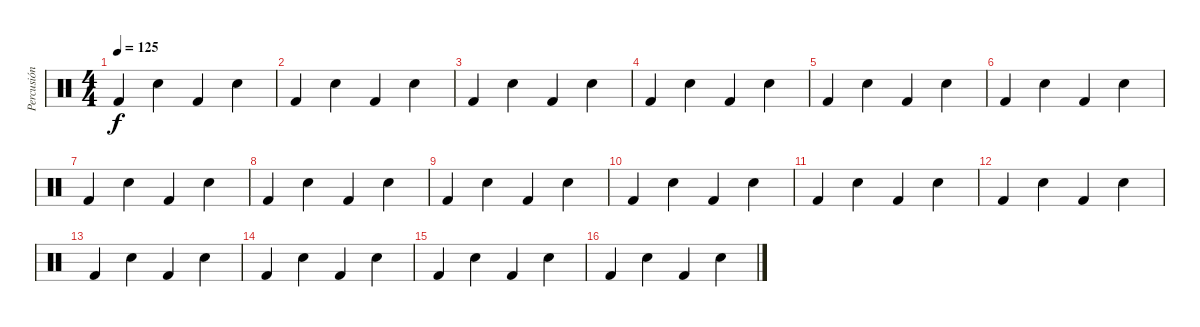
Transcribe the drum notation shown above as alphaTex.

\track ("Percusión" "Percusión") {instrument percussion}
\staff {score}
\articulation defaults
\ts (4 4)
\tempo 125
\clef neutral
\ks c "Kick (hit) 2".4{dy f} "Electric Snare (hit)".4 "Kick (hit) 2".4 "Electric Snare (hit)".4
|
"Kick (hit) 2".4 "Electric Snare (hit)".4 "Kick (hit) 2".4 "Electric Snare (hit)".4 |
"Kick (hit) 2".4 "Electric Snare (hit)".4 "Kick (hit) 2".4 "Electric Snare (hit)".4 |
"Kick (hit) 2".4 "Electric Snare (hit)".4 "Kick (hit) 2".4 "Electric Snare (hit)".4 |
"Kick (hit) 2".4 "Electric Snare (hit)".4 "Kick (hit) 2".4 "Electric Snare (hit)".4 |
"Kick (hit) 2".4 "Electric Snare (hit)".4 "Kick (hit) 2".4 "Electric Snare (hit)".4 |
"Kick (hit) 2".4 "Electric Snare (hit)".4 "Kick (hit) 2".4 "Electric Snare (hit)".4 |
"Kick (hit) 2".4 "Electric Snare (hit)".4 "Kick (hit) 2".4 "Electric Snare (hit)".4 |
"Kick (hit) 2".4 "Electric Snare (hit)".4 "Kick (hit) 2".4 "Electric Snare (hit)".4 |
"Kick (hit) 2".4 "Electric Snare (hit)".4 "Kick (hit) 2".4 "Electric Snare (hit)".4 |
"Kick (hit) 2".4 "Electric Snare (hit)".4 "Kick (hit) 2".4 "Electric Snare (hit)".4 |
"Kick (hit) 2".4 "Electric Snare (hit)".4 "Kick (hit) 2".4 "Electric Snare (hit)".4 |
"Kick (hit) 2".4 "Electric Snare (hit)".4 "Kick (hit) 2".4 "Electric Snare (hit)".4 |
"Kick (hit) 2".4 "Electric Snare (hit)".4 "Kick (hit) 2".4 "Electric Snare (hit)".4 |
"Kick (hit) 2".4 "Electric Snare (hit)".4 "Kick (hit) 2".4 "Electric Snare (hit)".4 |
"Kick (hit) 2".4 "Electric Snare (hit)".4 "Kick (hit) 2".4 "Electric Snare (hit)".4
